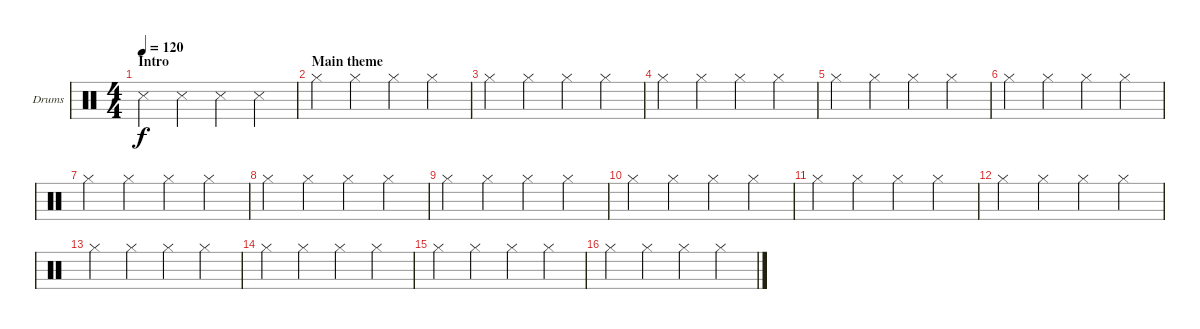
\bracketExtendMode groupsimilarinstruments
\firstSystemTrackNameOrientation horizontal
\otherSystemsTrackNameOrientation horizontal
\track ("Drumkit" "Drums") {instrument percussion}
\staff {score}
\articulation defaults
\ts (4 4)
\section ("" "Intro")
\tempo 120
\clef neutral
\ks c "Snare (side stick) 3".4{dy f} "Snare (side stick) 3".4 "Snare (side stick) 3".4 "Snare (side stick) 3".4
|
\section ("" "Main theme")
"Hi-Hat (closed)".4 "Hi-Hat (closed)".4 "Hi-Hat (closed)".4 "Hi-Hat (closed)".4 |
"Hi-Hat (closed)".4 "Hi-Hat (closed)".4 "Hi-Hat (closed)".4 "Hi-Hat (closed)".4 |
"Hi-Hat (closed)".4 "Hi-Hat (closed)".4 "Hi-Hat (closed)".4 "Hi-Hat (closed)".4 |
"Hi-Hat (closed)".4 "Hi-Hat (closed)".4 "Hi-Hat (closed)".4 "Hi-Hat (closed)".4 |
"Hi-Hat (closed)".4 "Hi-Hat (closed)".4 "Hi-Hat (closed)".4 "Hi-Hat (closed)".4 |
"Hi-Hat (closed)".4 "Hi-Hat (closed)".4 "Hi-Hat (closed)".4 "Hi-Hat (closed)".4 |
"Hi-Hat (closed)".4 "Hi-Hat (closed)".4 "Hi-Hat (closed)".4 "Hi-Hat (closed)".4 |
"Hi-Hat (closed)".4 "Hi-Hat (closed)".4 "Hi-Hat (closed)".4 "Hi-Hat (closed)".4 |
"Hi-Hat (closed)".4 "Hi-Hat (closed)".4 "Hi-Hat (closed)".4 "Hi-Hat (closed)".4 |
"Hi-Hat (closed)".4 "Hi-Hat (closed)".4 "Hi-Hat (closed)".4 "Hi-Hat (closed)".4 |
"Hi-Hat (closed)".4 "Hi-Hat (closed)".4 "Hi-Hat (closed)".4 "Hi-Hat (closed)".4 |
"Hi-Hat (closed)".4 "Hi-Hat (closed)".4 "Hi-Hat (closed)".4 "Hi-Hat (closed)".4 |
"Hi-Hat (closed)".4 "Hi-Hat (closed)".4 "Hi-Hat (closed)".4 "Hi-Hat (closed)".4 |
"Hi-Hat (closed)".4 "Hi-Hat (closed)".4 "Hi-Hat (closed)".4 "Hi-Hat (closed)".4 |
"Hi-Hat (closed)".4 "Hi-Hat (closed)".4 "Hi-Hat (closed)".4 "Hi-Hat (closed)".4
